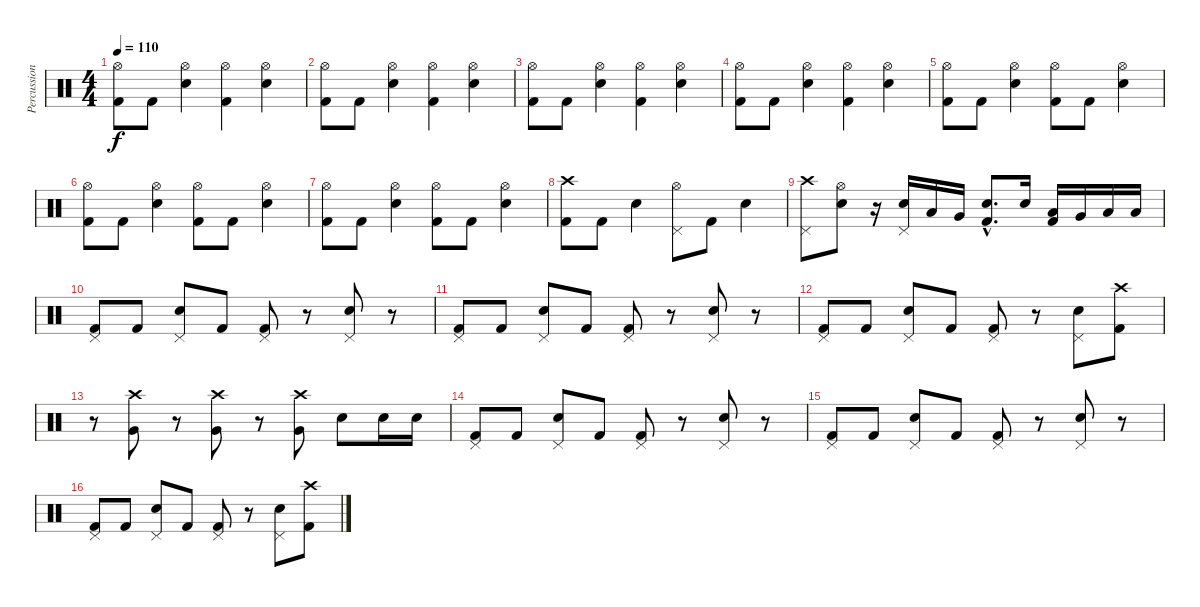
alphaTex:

\track ("Percussion" "Percussion") {instrument percussion}
\staff {score}
\articulation defaults
\ts (4 4)
\tempo 110
\clef neutral
\ks c
("Hi-Hat (open)" "Kick (hit) 2").8{dy f} "Kick (hit) 2".8 ("Electric Snare (hit)" "Hi-Hat (open)").4 ("Hi-Hat (open)" "Kick (hit) 2").4 ("Electric Snare (hit)" "Hi-Hat (open)").4 |
("Hi-Hat (open)" "Kick (hit) 2").8 "Kick (hit) 2".8 ("Electric Snare (hit)" "Hi-Hat (open)").4 ("Hi-Hat (open)" "Kick (hit) 2").4 ("Electric Snare (hit)" "Hi-Hat (open)").4 |
("Hi-Hat (open)" "Kick (hit) 2").8 "Kick (hit) 2".8 ("Electric Snare (hit)" "Hi-Hat (open)").4 ("Hi-Hat (open)" "Kick (hit) 2").4 ("Electric Snare (hit)" "Hi-Hat (open)").4 |
("Hi-Hat (open)" "Kick (hit) 2").8 "Kick (hit) 2".8 ("Electric Snare (hit)" "Hi-Hat (open)").4 ("Hi-Hat (open)" "Kick (hit) 2").4 ("Electric Snare (hit)" "Hi-Hat (open)").4 |
("Hi-Hat (open)" "Kick (hit) 2").8 "Kick (hit) 2".8 ("Electric Snare (hit)" "Hi-Hat (open)").4 ("Hi-Hat (open)" "Kick (hit) 2").8 "Kick (hit) 2".8 ("Electric Snare (hit)" "Hi-Hat (open)").4 |
("Hi-Hat (open)" "Kick (hit) 2").8 "Kick (hit) 2".8 ("Electric Snare (hit)" "Hi-Hat (open)").4 ("Hi-Hat (open)" "Kick (hit) 2").8 "Kick (hit) 2".8 ("Electric Snare (hit)" "Hi-Hat (open)").4 |
("Hi-Hat (open)" "Kick (hit) 2").8 "Kick (hit) 2".8 ("Electric Snare (hit)" "Hi-Hat (open)").4 ("Hi-Hat (open)" "Kick (hit) 2").8 "Kick (hit) 2".8 ("Electric Snare (hit)" "Hi-Hat (open)").4 |
("Crash high (hit)" "Kick (hit) 2").8 "Kick (hit) 2".8 "Electric Snare (hit)".4 ("Hi-Hat (open)" "Pedal Hi-Hat (hit)").8 "Kick (hit) 2".8 "Electric Snare (hit)".4 |
("Pedal Hi-Hat (hit)" "Crash high (hit)").8 ("Electric Snare (hit)" "Hi-Hat (open)").8 r.16 ("Electric Snare (hit)" "Pedal Hi-Hat (hit)").16 "Low Tom (hit)".16 "Very Low Tom (hit)".16 ("Electric Snare (hit)"{hac} "Kick (hit) 2"{hac}).8{d} "Electric Snare (hit)".16 ("Low Tom (hit)" "Kick (hit) 2").16 "Very Low Tom (hit)".16 "Low Floor Tom (hit)".16 "Low Floor Tom (hit)".16 |
("Pedal Hi-Hat (hit)" "Kick (hit) 2").8 "Kick (hit) 2".8 ("Electric Snare (hit)" "Pedal Hi-Hat (hit)").8 "Kick (hit) 2".8 ("Pedal Hi-Hat (hit)" "Kick (hit) 2").8 r.8 ("Electric Snare (hit)" "Pedal Hi-Hat (hit)").8 r.8 |
("Pedal Hi-Hat (hit)" "Kick (hit) 2").8 "Kick (hit) 2".8 ("Electric Snare (hit)" "Pedal Hi-Hat (hit)").8 "Kick (hit) 2".8 ("Pedal Hi-Hat (hit)" "Kick (hit) 2").8 r.8 ("Electric Snare (hit)" "Pedal Hi-Hat (hit)").8 r.8 |
("Pedal Hi-Hat (hit)" "Kick (hit) 2").8 "Kick (hit) 2".8 ("Electric Snare (hit)" "Pedal Hi-Hat (hit)").8 "Kick (hit) 2".8 ("Pedal Hi-Hat (hit)" "Kick (hit) 2").8 r.8 ("Electric Snare (hit)" "Pedal Hi-Hat (hit)").8 ("Kick (hit) 2" "Crash high (hit)").8 |
r.8 ("Crash high (hit)" "Very Low Tom (hit)").8 r.8 ("Crash high (hit)" "Very Low Tom (hit)").8 r.8 ("Crash high (hit)" "Very Low Tom (hit)").8 "Electric Snare (hit)".8 "Electric Snare (hit)".16 "Electric Snare (hit)".16 |
("Pedal Hi-Hat (hit)" "Kick (hit) 2").8 "Kick (hit) 2".8 ("Electric Snare (hit)" "Pedal Hi-Hat (hit)").8 "Kick (hit) 2".8 ("Pedal Hi-Hat (hit)" "Kick (hit) 2").8 r.8 ("Electric Snare (hit)" "Pedal Hi-Hat (hit)").8 r.8 |
("Pedal Hi-Hat (hit)" "Kick (hit) 2").8 "Kick (hit) 2".8 ("Electric Snare (hit)" "Pedal Hi-Hat (hit)").8 "Kick (hit) 2".8 ("Pedal Hi-Hat (hit)" "Kick (hit) 2").8 r.8 ("Electric Snare (hit)" "Pedal Hi-Hat (hit)").8 r.8 |
("Pedal Hi-Hat (hit)" "Kick (hit) 2").8 "Kick (hit) 2".8 ("Electric Snare (hit)" "Pedal Hi-Hat (hit)").8 "Kick (hit) 2".8 ("Pedal Hi-Hat (hit)" "Kick (hit) 2").8 r.8 ("Electric Snare (hit)" "Pedal Hi-Hat (hit)").8 ("Kick (hit) 2" "Crash high (hit)").8
